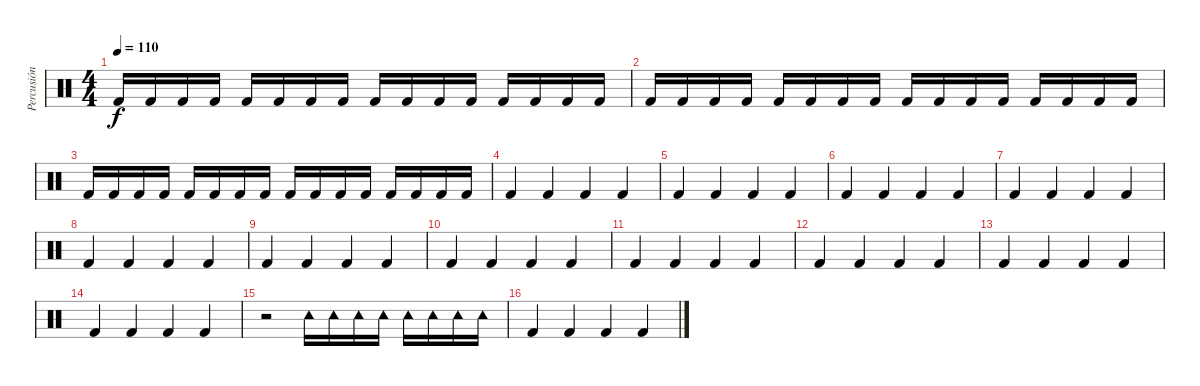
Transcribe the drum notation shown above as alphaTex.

\track ("Percusión" "Percusión") {instrument percussion}
\staff {score}
\articulation defaults
\ts (4 4)
\tempo 110
\clef neutral
\ks c "Kick (hit) 2".16{dy f} "Kick (hit) 2".16 "Kick (hit) 2".16 "Kick (hit) 2".16 "Kick (hit) 2".16 "Kick (hit) 2".16 "Kick (hit) 2".16 "Kick (hit) 2".16 "Kick (hit) 2".16 "Kick (hit) 2".16 "Kick (hit) 2".16 "Kick (hit) 2".16 "Kick (hit) 2".16 "Kick (hit) 2".16 "Kick (hit) 2".16 "Kick (hit) 2".16
|
"Kick (hit) 2".16 "Kick (hit) 2".16 "Kick (hit) 2".16 "Kick (hit) 2".16 "Kick (hit) 2".16 "Kick (hit) 2".16 "Kick (hit) 2".16 "Kick (hit) 2".16 "Kick (hit) 2".16 "Kick (hit) 2".16 "Kick (hit) 2".16 "Kick (hit) 2".16 "Kick (hit) 2".16 "Kick (hit) 2".16 "Kick (hit) 2".16 "Kick (hit) 2".16 |
"Kick (hit) 2".16 "Kick (hit) 2".16 "Kick (hit) 2".16 "Kick (hit) 2".16 "Kick (hit) 2".16 "Kick (hit) 2".16 "Kick (hit) 2".16 "Kick (hit) 2".16 "Kick (hit) 2".16 "Kick (hit) 2".16 "Kick (hit) 2".16 "Kick (hit) 2".16 "Kick (hit) 2".16 "Kick (hit) 2".16 "Kick (hit) 2".16 "Kick (hit) 2".16 |
"Kick (hit) 2".4 "Kick (hit) 2".4 "Kick (hit) 2".4 "Kick (hit) 2".4 |
"Kick (hit) 2".4 "Kick (hit) 2".4 "Kick (hit) 2".4 "Kick (hit) 2".4 |
"Kick (hit) 2".4 "Kick (hit) 2".4 "Kick (hit) 2".4 "Kick (hit) 2".4 |
"Kick (hit) 2".4 "Kick (hit) 2".4 "Kick (hit) 2".4 "Kick (hit) 2".4 |
"Kick (hit) 2".4 "Kick (hit) 2".4 "Kick (hit) 2".4 "Kick (hit) 2".4 |
"Kick (hit) 2".4 "Kick (hit) 2".4 "Kick (hit) 2".4 "Kick (hit) 2".4 |
"Kick (hit) 2".4 "Kick (hit) 2".4 "Kick (hit) 2".4 "Kick (hit) 2".4 |
"Kick (hit) 2".4 "Kick (hit) 2".4 "Kick (hit) 2".4 "Kick (hit) 2".4 |
"Kick (hit) 2".4 "Kick (hit) 2".4 "Kick (hit) 2".4 "Kick (hit) 2".4 |
"Kick (hit) 2".4 "Kick (hit) 2".4 "Kick (hit) 2".4 "Kick (hit) 2".4 |
"Kick (hit) 2".4 "Kick (hit) 2".4 "Kick (hit) 2".4 "Kick (hit) 2".4 |
r.2 "Tambourine (hit)".16 "Tambourine (hit)".16 "Tambourine (hit)".16 "Tambourine (hit)".16 "Tambourine (hit)".16 "Tambourine (hit)".16 "Tambourine (hit)".16 "Tambourine (hit)".16 |
"Kick (hit) 2".4 "Kick (hit) 2".4 "Kick (hit) 2".4 "Kick (hit) 2".4
